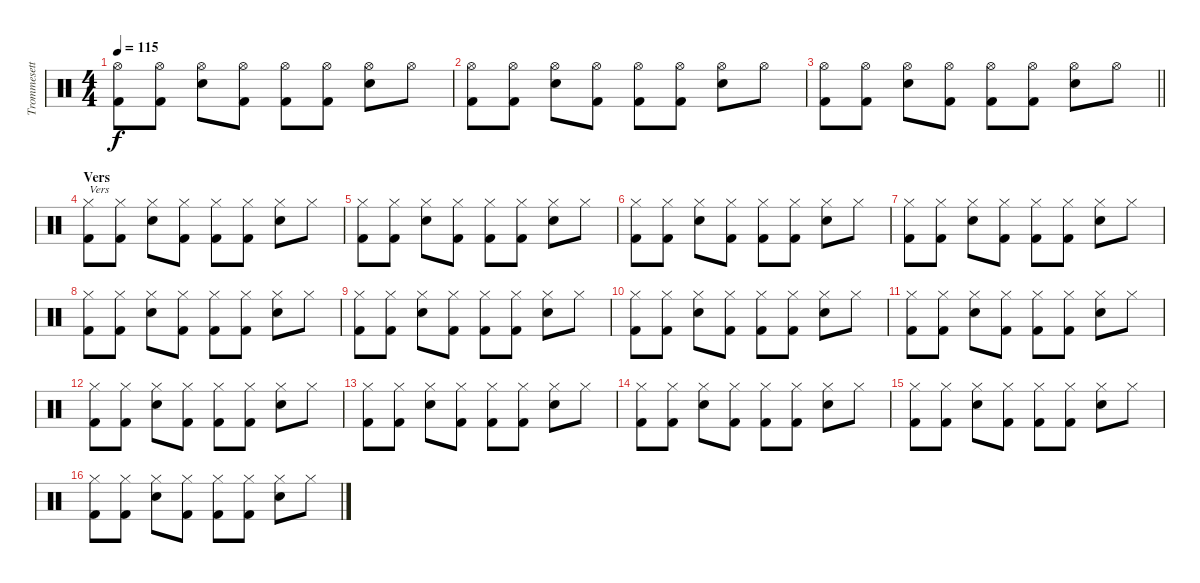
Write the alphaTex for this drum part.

\track ("Trommesett" "Trommesett") {instrument percussion}
\staff {score}
\articulation defaults
\ts (4 4)
\tempo 115
\clef neutral
\ks c
("Hi-Hat (open)" "Kick (hit) 2").8{dy f} ("Hi-Hat (open)" "Kick (hit) 2").8 ("Hi-Hat (open)" "Electric Snare (hit)").8 ("Hi-Hat (open)" "Kick (hit) 2").8 ("Hi-Hat (open)" "Kick (hit) 2").8 ("Hi-Hat (open)" "Kick (hit) 2").8 ("Hi-Hat (open)" "Electric Snare (hit)").8 "Hi-Hat (open)".8 |
("Hi-Hat (open)" "Kick (hit) 2").8 ("Hi-Hat (open)" "Kick (hit) 2").8 ("Hi-Hat (open)" "Electric Snare (hit)").8 ("Hi-Hat (open)" "Kick (hit) 2").8 ("Hi-Hat (open)" "Kick (hit) 2").8 ("Hi-Hat (open)" "Kick (hit) 2").8 ("Hi-Hat (open)" "Electric Snare (hit)").8 "Hi-Hat (open)".8 |
\barLineRight lightlight
("Hi-Hat (open)" "Kick (hit) 2").8 ("Hi-Hat (open)" "Kick (hit) 2").8 ("Hi-Hat (open)" "Electric Snare (hit)").8 ("Hi-Hat (open)" "Kick (hit) 2").8 ("Hi-Hat (open)" "Kick (hit) 2").8 ("Hi-Hat (open)" "Kick (hit) 2").8 ("Hi-Hat (open)" "Electric Snare (hit)").8 "Hi-Hat (open)".8 |
\section ("" "Vers")
("Hi-Hat (closed)" "Kick (hit) 2").8{txt "Vers"} ("Hi-Hat (closed)" "Kick (hit) 2").8 ("Hi-Hat (closed)" "Electric Snare (hit)").8 ("Hi-Hat (closed)" "Kick (hit) 2").8 ("Hi-Hat (closed)" "Kick (hit) 2").8 ("Hi-Hat (closed)" "Kick (hit) 2").8 ("Hi-Hat (closed)" "Electric Snare (hit)").8 "Hi-Hat (closed)".8 |
("Hi-Hat (closed)" "Kick (hit) 2").8 ("Hi-Hat (closed)" "Kick (hit) 2").8 ("Hi-Hat (closed)" "Electric Snare (hit)").8 ("Hi-Hat (closed)" "Kick (hit) 2").8 ("Hi-Hat (closed)" "Kick (hit) 2").8 ("Hi-Hat (closed)" "Kick (hit) 2").8 ("Hi-Hat (closed)" "Electric Snare (hit)").8 "Hi-Hat (closed)".8 |
("Hi-Hat (closed)" "Kick (hit) 2").8 ("Hi-Hat (closed)" "Kick (hit) 2").8 ("Hi-Hat (closed)" "Electric Snare (hit)").8 ("Hi-Hat (closed)" "Kick (hit) 2").8 ("Hi-Hat (closed)" "Kick (hit) 2").8 ("Hi-Hat (closed)" "Kick (hit) 2").8 ("Hi-Hat (closed)" "Electric Snare (hit)").8 "Hi-Hat (closed)".8 |
("Hi-Hat (closed)" "Kick (hit) 2").8 ("Hi-Hat (closed)" "Kick (hit) 2").8 ("Hi-Hat (closed)" "Electric Snare (hit)").8 ("Hi-Hat (closed)" "Kick (hit) 2").8 ("Hi-Hat (closed)" "Kick (hit) 2").8 ("Hi-Hat (closed)" "Kick (hit) 2").8 ("Hi-Hat (closed)" "Electric Snare (hit)").8 "Hi-Hat (closed)".8 |
("Hi-Hat (closed)" "Kick (hit) 2").8 ("Hi-Hat (closed)" "Kick (hit) 2").8 ("Hi-Hat (closed)" "Electric Snare (hit)").8 ("Hi-Hat (closed)" "Kick (hit) 2").8 ("Hi-Hat (closed)" "Kick (hit) 2").8 ("Hi-Hat (closed)" "Kick (hit) 2").8 ("Hi-Hat (closed)" "Electric Snare (hit)").8 "Hi-Hat (closed)".8 |
("Hi-Hat (closed)" "Kick (hit) 2").8 ("Hi-Hat (closed)" "Kick (hit) 2").8 ("Hi-Hat (closed)" "Electric Snare (hit)").8 ("Hi-Hat (closed)" "Kick (hit) 2").8 ("Hi-Hat (closed)" "Kick (hit) 2").8 ("Hi-Hat (closed)" "Kick (hit) 2").8 ("Hi-Hat (closed)" "Electric Snare (hit)").8 "Hi-Hat (closed)".8 |
("Hi-Hat (closed)" "Kick (hit) 2").8 ("Hi-Hat (closed)" "Kick (hit) 2").8 ("Hi-Hat (closed)" "Electric Snare (hit)").8 ("Hi-Hat (closed)" "Kick (hit) 2").8 ("Hi-Hat (closed)" "Kick (hit) 2").8 ("Hi-Hat (closed)" "Kick (hit) 2").8 ("Hi-Hat (closed)" "Electric Snare (hit)").8 "Hi-Hat (closed)".8 |
("Hi-Hat (closed)" "Kick (hit) 2").8 ("Hi-Hat (closed)" "Kick (hit) 2").8 ("Hi-Hat (closed)" "Electric Snare (hit)").8 ("Hi-Hat (closed)" "Kick (hit) 2").8 ("Hi-Hat (closed)" "Kick (hit) 2").8 ("Hi-Hat (closed)" "Kick (hit) 2").8 ("Hi-Hat (closed)" "Electric Snare (hit)").8 "Hi-Hat (closed)".8 |
("Hi-Hat (closed)" "Kick (hit) 2").8 ("Hi-Hat (closed)" "Kick (hit) 2").8 ("Hi-Hat (closed)" "Electric Snare (hit)").8 ("Hi-Hat (closed)" "Kick (hit) 2").8 ("Hi-Hat (closed)" "Kick (hit) 2").8 ("Hi-Hat (closed)" "Kick (hit) 2").8 ("Hi-Hat (closed)" "Electric Snare (hit)").8 "Hi-Hat (closed)".8 |
("Hi-Hat (closed)" "Kick (hit) 2").8 ("Hi-Hat (closed)" "Kick (hit) 2").8 ("Hi-Hat (closed)" "Electric Snare (hit)").8 ("Hi-Hat (closed)" "Kick (hit) 2").8 ("Hi-Hat (closed)" "Kick (hit) 2").8 ("Hi-Hat (closed)" "Kick (hit) 2").8 ("Hi-Hat (closed)" "Electric Snare (hit)").8 "Hi-Hat (closed)".8 |
("Hi-Hat (closed)" "Kick (hit) 2").8 ("Hi-Hat (closed)" "Kick (hit) 2").8 ("Hi-Hat (closed)" "Electric Snare (hit)").8 ("Hi-Hat (closed)" "Kick (hit) 2").8 ("Hi-Hat (closed)" "Kick (hit) 2").8 ("Hi-Hat (closed)" "Kick (hit) 2").8 ("Hi-Hat (closed)" "Electric Snare (hit)").8 "Hi-Hat (closed)".8 |
("Hi-Hat (closed)" "Kick (hit) 2").8 ("Hi-Hat (closed)" "Kick (hit) 2").8 ("Hi-Hat (closed)" "Electric Snare (hit)").8 ("Hi-Hat (closed)" "Kick (hit) 2").8 ("Hi-Hat (closed)" "Kick (hit) 2").8 ("Hi-Hat (closed)" "Kick (hit) 2").8 ("Hi-Hat (closed)" "Electric Snare (hit)").8 "Hi-Hat (closed)".8 |
("Hi-Hat (closed)" "Kick (hit) 2").8 ("Hi-Hat (closed)" "Kick (hit) 2").8 ("Hi-Hat (closed)" "Electric Snare (hit)").8 ("Hi-Hat (closed)" "Kick (hit) 2").8 ("Hi-Hat (closed)" "Kick (hit) 2").8 ("Hi-Hat (closed)" "Kick (hit) 2").8 ("Hi-Hat (closed)" "Electric Snare (hit)").8 "Hi-Hat (closed)".8
